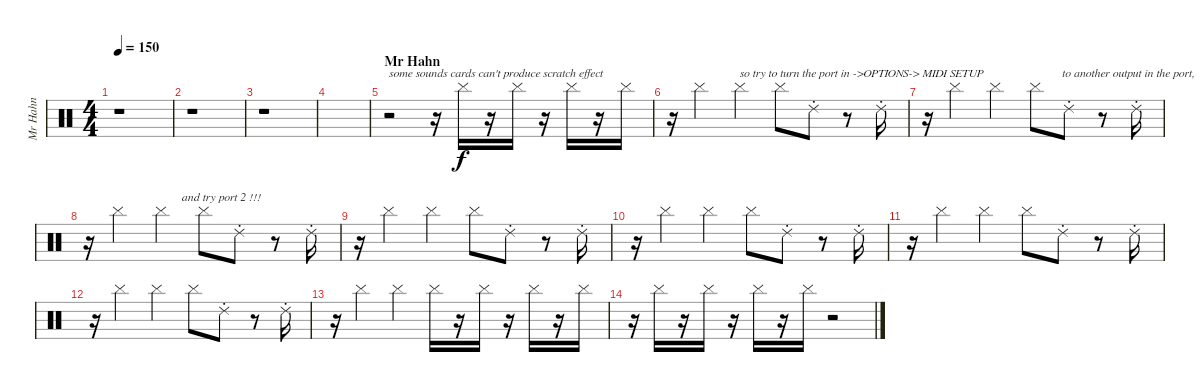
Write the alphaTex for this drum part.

\track ("Mr Hahn" "Mr Hahn") {instrument percussion}
\staff {score}
\articulation defaults
\ts (4 4)
\tempo 150
\clef neutral
\ks c
r.1{dy f} |
r.1 |
r.1 |
|
\section ("" "Mr Hahn")
r.2{txt "some sounds cards can't produce scratch effect"} r.16 "Cymbal (hit)".16 r.16 "Cymbal (hit)".16 r.16 "Cymbal (hit)".16 r.16 "Cymbal (hit)".16 |
r.16 "Cymbal (hit)".4 "Cymbal (hit)".4{txt "so try to turn the port in ->OPTIONS-> MIDI SETUP"} "Cymbal (hit)".8 "Ride (choke) 2".8 r.8 "Ride (choke) 2".16 |
r.16 "Cymbal (hit)".4 "Cymbal (hit)".4 "Cymbal (hit)".8{txt "         to another output in the port,"} "Ride (choke) 2".8 r.8 "Ride (choke) 2".16 |
r.16 "Cymbal (hit)".4 "Cymbal (hit)".4{txt "       and try port 2 !!!"} "Cymbal (hit)".8 "Ride (choke) 2".8 r.8 "Ride (choke) 2".16 |
r.16 "Cymbal (hit)".4 "Cymbal (hit)".4 "Cymbal (hit)".8 "Ride (choke) 2".8 r.8 "Ride (choke) 2".16 |
r.16 "Cymbal (hit)".4 "Cymbal (hit)".4 "Cymbal (hit)".8 "Ride (choke) 2".8 r.8 "Ride (choke) 2".16 |
r.16 "Cymbal (hit)".4 "Cymbal (hit)".4 "Cymbal (hit)".8 "Ride (choke) 2".8 r.8 "Ride (choke) 2".16 |
r.16 "Cymbal (hit)".4 "Cymbal (hit)".4 "Cymbal (hit)".8 "Ride (choke) 2".8 r.8 "Ride (choke) 2".16 |
r.16 "Cymbal (hit)".4 "Cymbal (hit)".4 "Cymbal (hit)".16 r.16 "Cymbal (hit)".16 r.16 "Cymbal (hit)".16 r.16 "Cymbal (hit)".16 |
r.16 "Cymbal (hit)".16 r.16 "Cymbal (hit)".16 r.16 "Cymbal (hit)".16 r.16 "Cymbal (hit)".16 r.2
